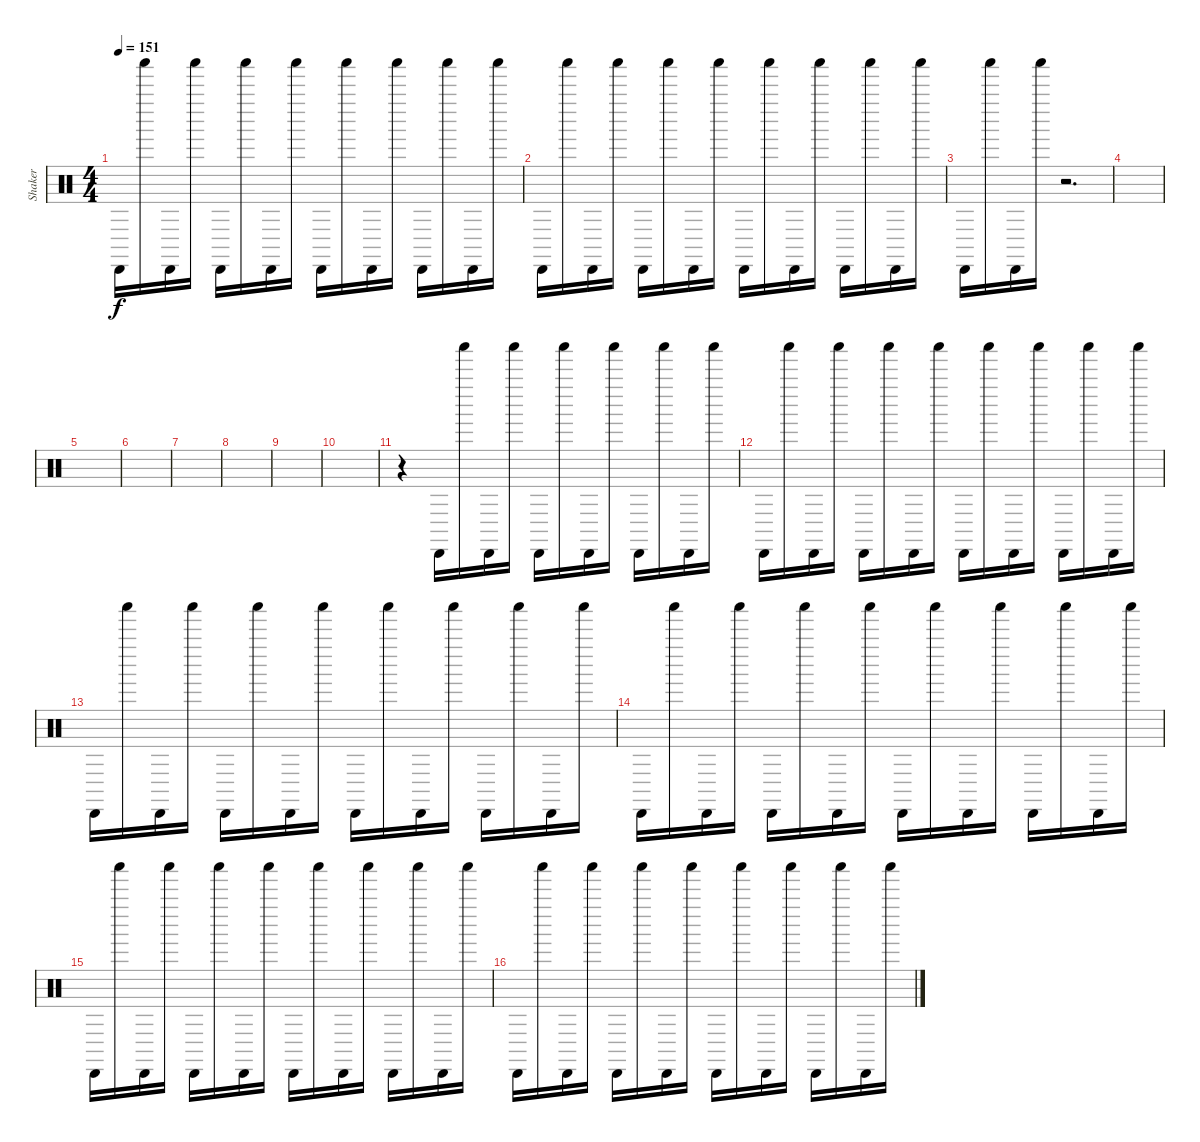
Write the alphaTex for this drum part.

\track ("Shaker" "Shaker") {instrument percussion}
\staff {score}
\articulation defaults
\ts (4 4)
\tempo 151
\clef neutral
\ks c "Cabasa (hit)".16{dy f} "Shaker (hit)".16 "Cabasa (hit)".16 "Shaker (hit)".16 "Cabasa (hit)".16 "Shaker (hit)".16 "Cabasa (hit)".16 "Shaker (hit)".16 "Cabasa (hit)".16 "Shaker (hit)".16 "Cabasa (hit)".16 "Shaker (hit)".16 "Cabasa (hit)".16 "Shaker (hit)".16 "Cabasa (hit)".16 "Shaker (hit)".16
|
"Cabasa (hit)".16 "Shaker (hit)".16 "Cabasa (hit)".16 "Shaker (hit)".16 "Cabasa (hit)".16 "Shaker (hit)".16 "Cabasa (hit)".16 "Shaker (hit)".16 "Cabasa (hit)".16 "Shaker (hit)".16 "Cabasa (hit)".16 "Shaker (hit)".16 "Cabasa (hit)".16 "Shaker (hit)".16 "Cabasa (hit)".16 "Shaker (hit)".16 |
"Cabasa (hit)".16 "Shaker (hit)".16 "Cabasa (hit)".16 "Shaker (hit)".16 r.2{d} |
|
|
|
|
|
|
|
r.4 "Cabasa (hit)".16{volume 15} "Shaker (hit)".16 "Cabasa (hit)".16 "Shaker (hit)".16 "Cabasa (hit)".16 "Shaker (hit)".16 "Cabasa (hit)".16 "Shaker (hit)".16 "Cabasa (hit)".16 "Shaker (hit)".16 "Cabasa (hit)".16 "Shaker (hit)".16 |
"Cabasa (hit)".16 "Shaker (hit)".16 "Cabasa (hit)".16 "Shaker (hit)".16 "Cabasa (hit)".16 "Shaker (hit)".16 "Cabasa (hit)".16 "Shaker (hit)".16 "Cabasa (hit)".16 "Shaker (hit)".16 "Cabasa (hit)".16 "Shaker (hit)".16 "Cabasa (hit)".16 "Shaker (hit)".16 "Cabasa (hit)".16 "Shaker (hit)".16 |
"Cabasa (hit)".16 "Shaker (hit)".16 "Cabasa (hit)".16 "Shaker (hit)".16 "Cabasa (hit)".16 "Shaker (hit)".16 "Cabasa (hit)".16 "Shaker (hit)".16 "Cabasa (hit)".16 "Shaker (hit)".16 "Cabasa (hit)".16 "Shaker (hit)".16 "Cabasa (hit)".16 "Shaker (hit)".16 "Cabasa (hit)".16 "Shaker (hit)".16 |
"Cabasa (hit)".16 "Shaker (hit)".16 "Cabasa (hit)".16 "Shaker (hit)".16 "Cabasa (hit)".16 "Shaker (hit)".16 "Cabasa (hit)".16 "Shaker (hit)".16 "Cabasa (hit)".16 "Shaker (hit)".16 "Cabasa (hit)".16 "Shaker (hit)".16 "Cabasa (hit)".16 "Shaker (hit)".16 "Cabasa (hit)".16 "Shaker (hit)".16 |
"Cabasa (hit)".16 "Shaker (hit)".16 "Cabasa (hit)".16 "Shaker (hit)".16 "Cabasa (hit)".16 "Shaker (hit)".16 "Cabasa (hit)".16 "Shaker (hit)".16 "Cabasa (hit)".16 "Shaker (hit)".16 "Cabasa (hit)".16 "Shaker (hit)".16 "Cabasa (hit)".16 "Shaker (hit)".16 "Cabasa (hit)".16 "Shaker (hit)".16 |
"Cabasa (hit)".16 "Shaker (hit)".16 "Cabasa (hit)".16 "Shaker (hit)".16 "Cabasa (hit)".16 "Shaker (hit)".16 "Cabasa (hit)".16 "Shaker (hit)".16 "Cabasa (hit)".16 "Shaker (hit)".16 "Cabasa (hit)".16 "Shaker (hit)".16 "Cabasa (hit)".16 "Shaker (hit)".16 "Cabasa (hit)".16 "Shaker (hit)".16
